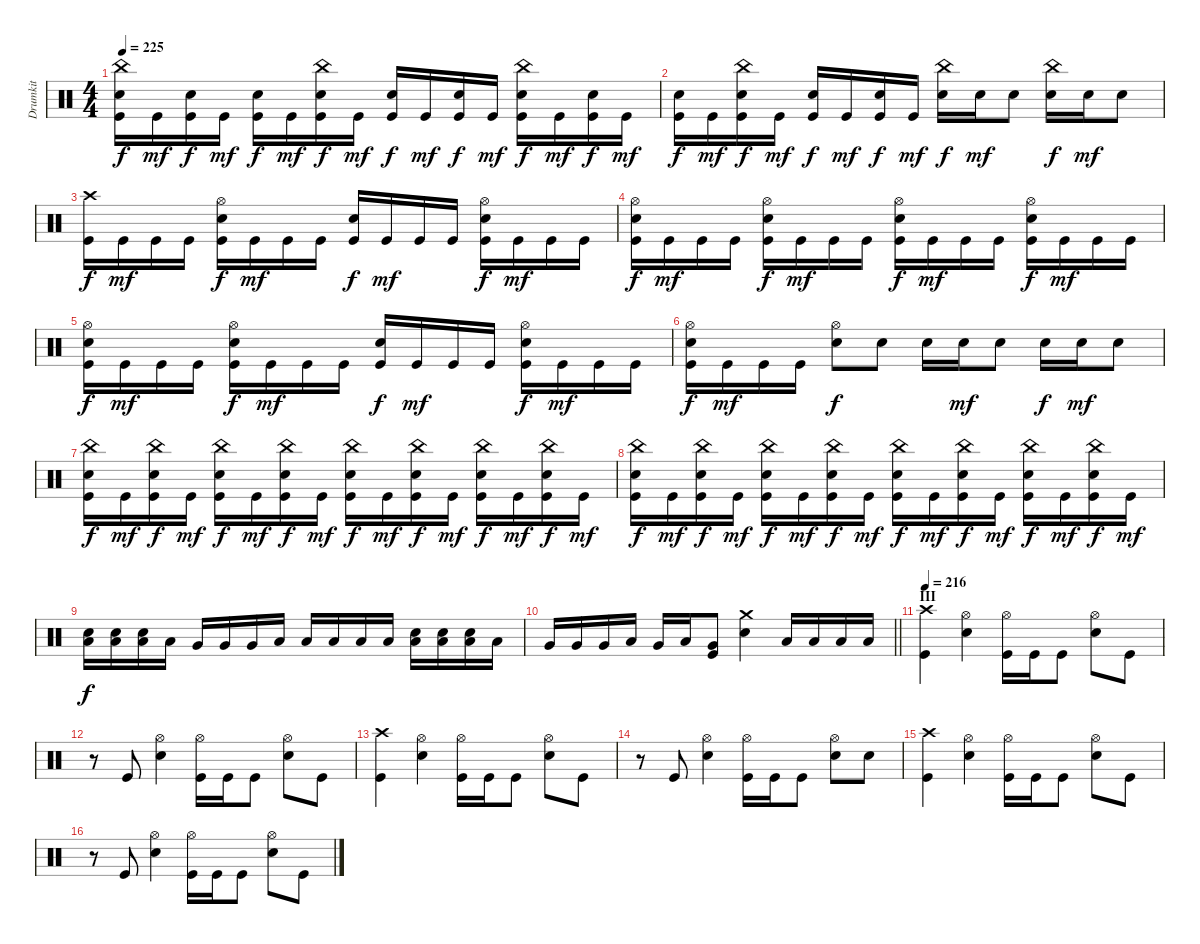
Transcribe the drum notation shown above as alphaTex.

\track ("Drumkit" "Drumkit") {instrument percussion}
\staff {score}
\articulation defaults
\ts (4 4)
\tempo 225
\clef neutral
\ks c
("Snare (hit) 2" "Kick (hit)" "China (hit)").16{dy f} "Kick (hit)".16{dy mf} ("Snare (hit) 2" "Kick (hit)").16{dy f} "Kick (hit)".16{dy mf} ("Snare (hit) 2" "Kick (hit)").16{dy f} "Kick (hit)".16{dy mf} ("Snare (hit) 2" "Kick (hit)" "China (hit)").16{dy f} "Kick (hit)".16{dy mf} ("Snare (hit) 2" "Kick (hit)").16{dy f} "Kick (hit)".16{dy mf} ("Snare (hit) 2" "Kick (hit)").16{dy f} "Kick (hit)".16{dy mf} ("Snare (hit) 2" "Kick (hit)" "China (hit)").16{dy f} "Kick (hit)".16{dy mf} ("Snare (hit) 2" "Kick (hit)").16{dy f} "Kick (hit)".16{dy mf} |
("Snare (hit) 2" "Kick (hit)").16{dy f} "Kick (hit)".16{dy mf} ("Snare (hit) 2" "Kick (hit)" "China (hit)").16{dy f} "Kick (hit)".16{dy mf} ("Snare (hit) 2" "Kick (hit)").16{dy f} "Kick (hit)".16{dy mf} ("Snare (hit) 2" "Kick (hit)").16{dy f} "Kick (hit)".16{dy mf} ("Snare (hit) 2" "China (hit)").16{dy f} "Snare (hit) 2".16{dy mf} "Snare (hit) 2".8 ("Snare (hit) 2" "China (hit)").16{dy f} "Snare (hit) 2".16{dy mf} "Snare (hit) 2".8 |
("Kick (hit)" "Crash high (hit)").16{dy f} "Kick (hit)".16{dy mf} "Kick (hit)".16 "Kick (hit)".16 ("Snare (hit) 2" "Kick (hit)" "Hi-Hat (open)").16{dy f} "Kick (hit)".16{dy mf} "Kick (hit)".16 "Kick (hit)".16 ("Snare (hit) 2" "Kick (hit)").16{dy f} "Kick (hit)".16{dy mf} "Kick (hit)".16 "Kick (hit)".16 ("Snare (hit) 2" "Kick (hit)" "Hi-Hat (open)").16{dy f} "Kick (hit)".16{dy mf} "Kick (hit)".16 "Kick (hit)".16 |
("Snare (hit) 2" "Kick (hit)" "Hi-Hat (open)").16{dy f} "Kick (hit)".16{dy mf} "Kick (hit)".16 "Kick (hit)".16 ("Snare (hit) 2" "Kick (hit)" "Hi-Hat (open)").16{dy f} "Kick (hit)".16{dy mf} "Kick (hit)".16 "Kick (hit)".16 ("Snare (hit) 2" "Kick (hit)" "Hi-Hat (open)").16{dy f} "Kick (hit)".16{dy mf} "Kick (hit)".16 "Kick (hit)".16 ("Snare (hit) 2" "Kick (hit)" "Hi-Hat (open)").16{dy f} "Kick (hit)".16{dy mf} "Kick (hit)".16 "Kick (hit)".16 |
("Kick (hit)" "Snare (hit) 2" "Hi-Hat (open)").16{dy f} "Kick (hit)".16{dy mf} "Kick (hit)".16 "Kick (hit)".16 ("Snare (hit) 2" "Kick (hit)" "Hi-Hat (open)").16{dy f} "Kick (hit)".16{dy mf} "Kick (hit)".16 "Kick (hit)".16 ("Snare (hit) 2" "Kick (hit)").16{dy f} "Kick (hit)".16{dy mf} "Kick (hit)".16 "Kick (hit)".16 ("Snare (hit) 2" "Kick (hit)" "Hi-Hat (open)").16{dy f} "Kick (hit)".16{dy mf} "Kick (hit)".16 "Kick (hit)".16 |
("Snare (hit) 2" "Kick (hit)" "Hi-Hat (open)").16{dy f} "Kick (hit)".16{dy mf} "Kick (hit)".16 "Kick (hit)".16 ("Snare (hit) 2" "Hi-Hat (open)").8{dy f} "Snare (hit) 2".8 "Snare (hit) 2".16 "Snare (hit) 2".16{dy mf} "Snare (hit) 2".8 "Snare (hit) 2".16{dy f} "Snare (hit) 2".16{dy mf} "Snare (hit) 2".8 |
("Snare (hit) 2" "Kick (hit)" "China (hit)").16{dy f} "Kick (hit)".16{dy mf} ("Snare (hit) 2" "Kick (hit)" "China (hit)").16{dy f} "Kick (hit)".16{dy mf} ("Snare (hit) 2" "Kick (hit)" "China (hit)").16{dy f} "Kick (hit)".16{dy mf} ("Snare (hit) 2" "Kick (hit)" "China (hit)").16{dy f} "Kick (hit)".16{dy mf} ("Snare (hit) 2" "Kick (hit)" "China (hit)").16{dy f} "Kick (hit)".16{dy mf} ("Snare (hit) 2" "Kick (hit)" "China (hit)").16{dy f} "Kick (hit)".16{dy mf} ("Snare (hit) 2" "Kick (hit)" "China (hit)").16{dy f} "Kick (hit)".16{dy mf} ("Snare (hit) 2" "Kick (hit)" "China (hit)").16{dy f} "Kick (hit)".16{dy mf} |
("Snare (hit) 2" "Kick (hit)" "China (hit)").16{dy f} "Kick (hit)".16{dy mf} ("Snare (hit) 2" "Kick (hit)" "China (hit)").16{dy f} "Kick (hit)".16{dy mf} ("Snare (hit) 2" "Kick (hit)" "China (hit)").16{dy f} "Kick (hit)".16{dy mf} ("Snare (hit) 2" "Kick (hit)" "China (hit)").16{dy f} "Kick (hit)".16{dy mf} ("Snare (hit) 2" "Kick (hit)" "China (hit)").16{dy f} "Kick (hit)".16{dy mf} ("Snare (hit) 2" "Kick (hit)" "China (hit)").16{dy f} "Kick (hit)".16{dy mf} ("Snare (hit) 2" "Kick (hit)" "China (hit)").16{dy f} "Kick (hit)".16{dy mf} ("Snare (hit) 2" "Kick (hit)" "China (hit)").16{dy f} "Kick (hit)".16{dy mf} |
("Snare (hit) 2" "Low Tom (hit)").16{dy f} ("Snare (hit) 2" "Low Tom (hit)").16 ("Snare (hit) 2" "Low Tom (hit)").16 "Low Tom (hit)".16 "Very Low Tom (hit)".16 "Very Low Tom (hit)".16 "Very Low Tom (hit)".16 "Low Floor Tom (hit)".16 "Low Floor Tom (hit)".16 "Low Floor Tom (hit)".16 "Low Floor Tom (hit)".16 "Low Floor Tom (hit)".16 ("Low Tom (hit)" "Snare (hit) 2").16 ("Low Tom (hit)" "Snare (hit) 2").16 ("Low Tom (hit)" "Snare (hit) 2").16 "Low Tom (hit)".16 |
\barLineRight lightlight "Very Low Tom (hit)".16 "Very Low Tom (hit)".16 "Very Low Tom (hit)".16 "Low Floor Tom (hit)".16 "Very Low Tom (hit)".16 "Low Floor Tom (hit)".16
("Very Low Tom (hit)" "Kick (hit)").8 ("Snare (hit) 2" "Crash medium (hit)").4 "Low Tom (hit)".16 "Low Tom (hit)".16 "Low Tom (hit)".16 "Low Tom (hit)".16 |
\section ("" "III")
\tempo 216
("Kick (hit)" "Crash high (hit)").4 ("Snare (hit) 2" "Hi-Hat (open)").4 ("Kick (hit)" "Hi-Hat (open)").16 "Kick (hit)".16 "Kick (hit)".8 ("Snare (hit) 2" "Hi-Hat (open)").8 "Kick (hit)".8 |
r.8 "Kick (hit)".8 ("Snare (hit) 2" "Hi-Hat (open)").4 ("Kick (hit)" "Hi-Hat (open)").16 "Kick (hit)".16 "Kick (hit)".8 ("Snare (hit) 2" "Hi-Hat (open)").8 "Kick (hit)".8 |
("Kick (hit)" "Crash high (hit)").4 ("Snare (hit) 2" "Hi-Hat (open)").4 ("Kick (hit)" "Hi-Hat (open)").16 "Kick (hit)".16 "Kick (hit)".8 ("Snare (hit) 2" "Hi-Hat (open)").8 "Kick (hit)".8 |
r.8 "Kick (hit)".8 ("Snare (hit) 2" "Hi-Hat (open)").4 ("Kick (hit)" "Hi-Hat (open)").16 "Kick (hit)".16 "Kick (hit)".8 ("Snare (hit) 2" "Hi-Hat (open)").8 "Snare (hit) 2".8 |
("Kick (hit)" "Crash high (hit)").4 ("Snare (hit) 2" "Hi-Hat (open)").4 ("Kick (hit)" "Hi-Hat (open)").16 "Kick (hit)".16 "Kick (hit)".8 ("Snare (hit) 2" "Hi-Hat (open)").8 "Kick (hit)".8 |
r.8 "Kick (hit)".8 ("Snare (hit) 2" "Hi-Hat (open)").4 ("Kick (hit)" "Hi-Hat (open)").16 "Kick (hit)".16 "Kick (hit)".8 ("Snare (hit) 2" "Hi-Hat (open)").8 "Kick (hit)".8
